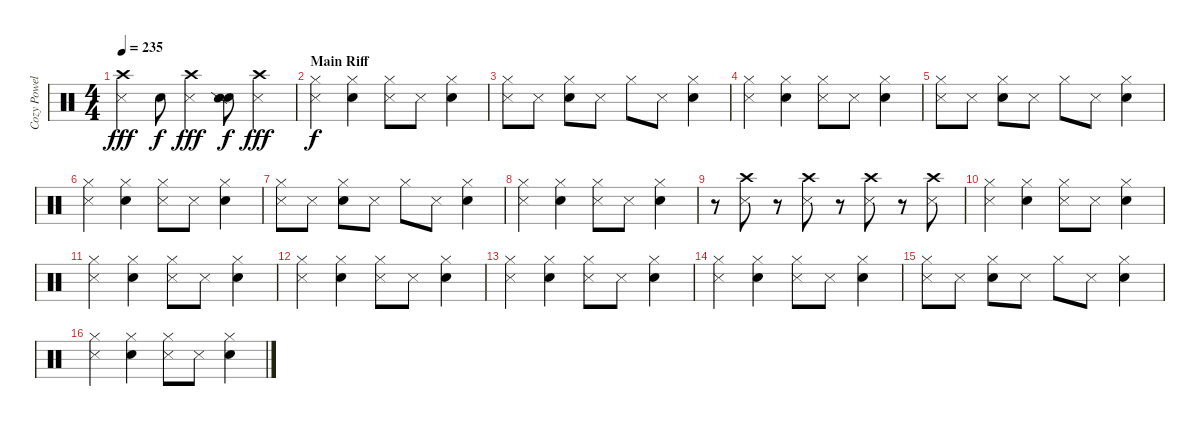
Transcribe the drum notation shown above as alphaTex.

\track ("Cozy Powell" "Cozy Powel") {instrument percussion}
\staff {score}
\articulation defaults
\ts (4 4)
\tempo 235
\clef neutral
\ks c
("Metronome (hit)" "Crash high (hit)").4{dy fff} "Electric Snare (hit)".8{dy f} ("Crash high (hit)" "Metronome (hit)").4{dy fff} ("Electric Snare (hit)" "Snare (side stick) 2").8{dy f} ("Metronome (hit)" "Crash high (hit)").4{dy fff} |
\section ("" "Main Riff")
("Metronome (hit)" "Hi-Hat (closed)").4{dy f} ("Electric Snare (hit)" "Hi-Hat (closed)").4 ("Metronome (hit)" "Hi-Hat (closed)").8 "Metronome (hit)".8 ("Electric Snare (hit)" "Hi-Hat (closed)").4 |
("Metronome (hit)" "Hi-Hat (closed)").8 "Metronome (hit)".8 ("Electric Snare (hit)" "Hi-Hat (closed)").8 "Metronome (hit)".8 "Hi-Hat (closed)".8 "Metronome (hit)".8 ("Electric Snare (hit)" "Hi-Hat (closed)").4 |
("Metronome (hit)" "Hi-Hat (closed)").4 ("Electric Snare (hit)" "Hi-Hat (closed)").4 ("Hi-Hat (closed)" "Metronome (hit)").8 "Metronome (hit)".8 ("Electric Snare (hit)" "Hi-Hat (closed)").4 |
("Hi-Hat (closed)" "Metronome (hit)").8 "Metronome (hit)".8 ("Electric Snare (hit)" "Hi-Hat (closed)").8 "Metronome (hit)".8 "Hi-Hat (closed)".8 "Metronome (hit)".8 ("Hi-Hat (closed)" "Electric Snare (hit)").4 |
("Hi-Hat (closed)" "Metronome (hit)").4 ("Hi-Hat (closed)" "Electric Snare (hit)").4 ("Hi-Hat (closed)" "Metronome (hit)").8 "Metronome (hit)".8 ("Hi-Hat (closed)" "Electric Snare (hit)").4 |
("Hi-Hat (closed)" "Metronome (hit)").8 "Metronome (hit)".8 ("Electric Snare (hit)" "Hi-Hat (closed)").8 "Metronome (hit)".8 "Hi-Hat (closed)".8 "Metronome (hit)".8 ("Hi-Hat (closed)" "Electric Snare (hit)").4 |
("Metronome (hit)" "Hi-Hat (closed)").4 ("Electric Snare (hit)" "Hi-Hat (closed)").4 ("Metronome (hit)" "Hi-Hat (closed)").8 "Metronome (hit)".8 ("Hi-Hat (closed)" "Electric Snare (hit)").4 |
r.8 ("Metronome (hit)" "Crash high (hit)").8 r.8 ("Crash high (hit)" "Metronome (hit)").8 r.8 ("Metronome (hit)" "Crash high (hit)").8 r.8 ("Metronome (hit)" "Crash high (hit)").8 |
("Metronome (hit)" "Hi-Hat (closed)").4 ("Electric Snare (hit)" "Hi-Hat (closed)").4 ("Hi-Hat (closed)" "Metronome (hit)").8 "Metronome (hit)".8 ("Electric Snare (hit)" "Hi-Hat (closed)").4 |
("Metronome (hit)" "Hi-Hat (closed)").4 ("Hi-Hat (closed)" "Electric Snare (hit)").4 ("Metronome (hit)" "Hi-Hat (closed)").8 "Metronome (hit)".8 ("Hi-Hat (closed)" "Electric Snare (hit)").4 |
("Hi-Hat (closed)" "Metronome (hit)").4 ("Hi-Hat (closed)" "Electric Snare (hit)").4 ("Metronome (hit)" "Hi-Hat (closed)").8 "Metronome (hit)".8 ("Hi-Hat (closed)" "Electric Snare (hit)").4 |
("Hi-Hat (closed)" "Metronome (hit)").4 ("Hi-Hat (closed)" "Electric Snare (hit)").4 ("Metronome (hit)" "Hi-Hat (closed)").8 "Metronome (hit)".8 ("Electric Snare (hit)" "Hi-Hat (closed)").4 |
("Hi-Hat (closed)" "Metronome (hit)").4 ("Electric Snare (hit)" "Hi-Hat (closed)").4 ("Metronome (hit)" "Hi-Hat (closed)").8 "Metronome (hit)".8 ("Electric Snare (hit)" "Hi-Hat (closed)").4 |
("Metronome (hit)" "Hi-Hat (closed)").8 "Metronome (hit)".8 ("Electric Snare (hit)" "Hi-Hat (closed)").8 "Metronome (hit)".8 "Hi-Hat (closed)".8 "Metronome (hit)".8 ("Electric Snare (hit)" "Hi-Hat (closed)").4 |
("Hi-Hat (closed)" "Metronome (hit)").4 ("Electric Snare (hit)" "Hi-Hat (closed)").4 ("Hi-Hat (closed)" "Metronome (hit)").8 "Metronome (hit)".8 ("Hi-Hat (closed)" "Electric Snare (hit)").4
